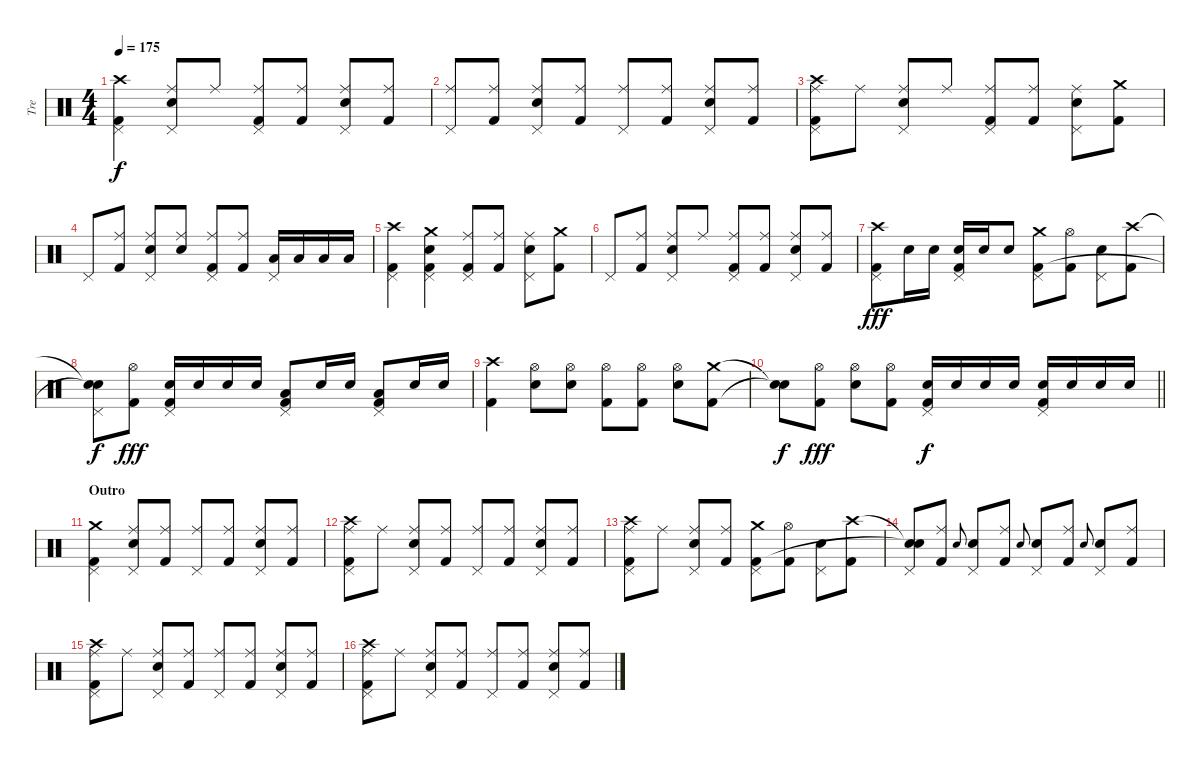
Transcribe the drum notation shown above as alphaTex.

\track ("Tre" "Tre") {instrument percussion}
\staff {score}
\articulation defaults
\ts (4 4)
\tempo 175
\clef neutral
\ks c
("Crash high (hit)" "Pedal Hi-Hat (hit)" "Kick (hit) 2").4{dy f} ("Ride (middle)" "Snare (hit) 2" "Pedal Hi-Hat (hit)").8 "Ride (middle)".8 ("Ride (middle)" "Pedal Hi-Hat (hit)" "Kick (hit) 2").8 ("Ride (middle)" "Kick (hit) 2").8 ("Ride (middle)" "Snare (hit) 2" "Pedal Hi-Hat (hit)").8 ("Ride (middle)" "Kick (hit) 2").8 |
("Ride (middle)" "Pedal Hi-Hat (hit)").8 ("Ride (middle)" "Kick (hit) 2").8 ("Ride (middle)" "Snare (hit) 2" "Pedal Hi-Hat (hit)").8 ("Ride (middle)" "Kick (hit) 2").8 ("Ride (middle)" "Pedal Hi-Hat (hit)").8 ("Ride (middle)" "Kick (hit) 2").8 ("Ride (middle)" "Snare (hit) 2" "Pedal Hi-Hat (hit)").8 ("Ride (middle)" "Kick (hit) 2").8 |
("Crash high (hit)" "Ride (middle)" "Pedal Hi-Hat (hit)" "Kick (hit) 2").8 "Ride (middle)".8 ("Ride (middle)" "Snare (hit) 2" "Pedal Hi-Hat (hit)").8 "Ride (middle)".8 ("Ride (middle)" "Pedal Hi-Hat (hit)" "Kick (hit) 2").8 ("Ride (middle)" "Kick (hit) 2").8 ("Ride (middle)" "Snare (hit) 2" "Pedal Hi-Hat (hit)").8 ("Crash medium (hit)" "Kick (hit) 2").8 |
"Pedal Hi-Hat (hit)".8 ("Ride (middle)" "Kick (hit) 2").8 ("Ride (middle)" "Snare (hit) 2" "Pedal Hi-Hat (hit)").8 ("Ride (middle)" "Snare (hit) 2").8 ("Ride (middle)" "Pedal Hi-Hat (hit)" "Kick (hit) 2").8 ("Ride (middle)" "Kick (hit) 2").8 ("Low Tom (hit)" "Pedal Hi-Hat (hit)").16 "Low Tom (hit)".16 "Low Tom (hit)".16 "Low Tom (hit)".16 |
("Crash high (hit)" "Pedal Hi-Hat (hit)" "Kick (hit) 2").4 ("Crash medium (hit)" "Snare (hit) 2" "Pedal Hi-Hat (hit)" "Kick (hit) 2").4 ("Ride (middle)" "Pedal Hi-Hat (hit)" "Kick (hit) 2").8 ("Ride (middle)" "Kick (hit) 2").8 ("Ride (middle)" "Snare (hit) 2" "Pedal Hi-Hat (hit)").8 ("Crash medium (hit)" "Kick (hit) 2").8 |
"Pedal Hi-Hat (hit)".8 ("Ride (middle)" "Kick (hit) 2").8 ("Ride (middle)" "Snare (hit) 2" "Pedal Hi-Hat (hit)").8 "Ride (middle)".8 ("Ride (middle)" "Pedal Hi-Hat (hit)" "Kick (hit) 2").8 ("Ride (middle)" "Kick (hit) 2").8 ("Ride (middle)" "Snare (hit) 2" "Pedal Hi-Hat (hit)").8 ("Ride (middle)" "Kick (hit) 2").8 |
("Crash high (hit)" "Pedal Hi-Hat (hit)" "Kick (hit) 2").8{dy fff} "Snare (hit) 2".16 "Snare (hit) 2".16 ("Snare (hit) 2" "Pedal Hi-Hat (hit)" "Kick (hit) 2").16 "Snare (hit) 2".16 "Snare (hit) 2".8 ("Crash medium (hit)" "Pedal Hi-Hat (hit)" "Kick (hit) 2").8 ("Hi-Hat (open)" "Kick (hit) 2").8 ("Snare (hit) 2" "Pedal Hi-Hat (hit)").8 ("Crash high (hit)" "Kick (hit) 2").8 |
("Snare (hit)"{t} "Pedal Hi-Hat (hit)" "Snare (hit)"{t}).8{dy f} ("Hi-Hat (open)" "Kick (hit) 2").8{dy fff} ("Snare (hit) 2" "Pedal Hi-Hat (hit)" "Kick (hit) 2").16 "Snare (hit) 2".16 "Snare (hit) 2".16 "Snare (hit) 2".16 ("Low Tom (hit)" "Pedal Hi-Hat (hit)" "Kick (hit) 2").8 "Snare (hit) 2".16 "Snare (hit) 2".16 ("Low Floor Tom (hit)" "Pedal Hi-Hat (hit)" "Kick (hit) 2").8 "Snare (hit) 2".16 "Snare (hit) 2".16 |
("Crash high (hit)" "Kick (hit) 2").4 ("Hi-Hat (open)" "Snare (hit) 2").8 ("Hi-Hat (open)" "Snare (hit) 2").8 ("Hi-Hat (open)" "Kick (hit) 2").8 ("Hi-Hat (open)" "Kick (hit) 2").8 ("Hi-Hat (open)" "Snare (hit) 2").8 ("Crash medium (hit)" "Kick (hit) 2").8 |
\barLineRight lightlight
("Snare (hit)"{t} "Snare (hit)"{t}).8{dy f} ("Hi-Hat (open)" "Kick (hit) 2").8{dy fff} ("Hi-Hat (open)" "Snare (hit) 2").8 ("Hi-Hat (open)" "Kick (hit) 2").8 ("Snare (hit) 2" "Pedal Hi-Hat (hit)" "Kick (hit) 2").16{dy f} "Snare (hit) 2".16 "Snare (hit) 2".16 "Snare (hit) 2".16 ("Snare (hit) 2" "Pedal Hi-Hat (hit)" "Kick (hit) 2").16 "Snare (hit) 2".16 "Snare (hit) 2".16 "Snare (hit) 2".16 |
\section ("" "Outro")
("Crash medium (hit)" "Pedal Hi-Hat (hit)" "Kick (hit) 2").4 ("Ride (middle)" "Snare (hit) 2" "Pedal Hi-Hat (hit)").8 ("Ride (middle)" "Kick (hit) 2").8 ("Ride (middle)" "Pedal Hi-Hat (hit)").8 ("Ride (middle)" "Kick (hit) 2").8 ("Ride (middle)" "Snare (hit) 2" "Pedal Hi-Hat (hit)").8 ("Ride (middle)" "Kick (hit) 2").8 |
("Crash high (hit)" "Ride (middle)" "Pedal Hi-Hat (hit)" "Kick (hit) 2").8 "Ride (middle)".8 ("Ride (middle)" "Snare (hit) 2" "Pedal Hi-Hat (hit)").8 ("Ride (middle)" "Kick (hit) 2").8 ("Ride (middle)" "Pedal Hi-Hat (hit)").8 ("Ride (middle)" "Kick (hit) 2").8 ("Ride (middle)" "Snare (hit) 2" "Pedal Hi-Hat (hit)").8 ("Ride (middle)" "Kick (hit) 2").8 |
("Crash high (hit)" "Ride (middle)" "Pedal Hi-Hat (hit)" "Kick (hit) 2").8 "Ride (middle)".8 ("Ride (middle)" "Snare (hit) 2" "Pedal Hi-Hat (hit)").8 ("Ride (middle)" "Kick (hit) 2").8 ("Crash medium (hit)" "Pedal Hi-Hat (hit)" "Kick (hit) 2").8 ("Hi-Hat (open)" "Kick (hit) 2").8 ("Snare (hit) 2" "Pedal Hi-Hat (hit)").8 ("Crash high (hit)" "Kick (hit) 2").8 |
("Snare (hit)"{t} "Pedal Hi-Hat (hit)" "Snare (hit)"{t}).8 ("Ride (middle)" "Kick (hit) 2").8 "Snare (hit) 2".8{gr onbeat} ("Snare (hit) 2" "Pedal Hi-Hat (hit)").8 ("Ride (middle)" "Kick (hit) 2").8 "Snare (hit) 2".8{gr onbeat} ("Snare (hit) 2" "Pedal Hi-Hat (hit)").8 ("Ride (middle)" "Kick (hit) 2").8 "Snare (hit) 2".8{gr onbeat} ("Snare (hit) 2" "Pedal Hi-Hat (hit)").8 ("Ride (middle)" "Kick (hit) 2").8 |
("Crash high (hit)" "Ride (middle)" "Pedal Hi-Hat (hit)" "Kick (hit) 2").8 "Ride (middle)".8 ("Ride (middle)" "Snare (hit) 2" "Pedal Hi-Hat (hit)").8 ("Ride (middle)" "Kick (hit) 2").8 ("Ride (middle)" "Pedal Hi-Hat (hit)").8 ("Ride (middle)" "Kick (hit) 2").8 ("Ride (middle)" "Snare (hit) 2" "Pedal Hi-Hat (hit)").8 ("Ride (middle)" "Kick (hit) 2").8 |
("Crash high (hit)" "Ride (middle)" "Pedal Hi-Hat (hit)" "Kick (hit) 2").8 "Ride (middle)".8 ("Ride (middle)" "Snare (hit) 2" "Pedal Hi-Hat (hit)").8 ("Ride (middle)" "Kick (hit) 2").8 ("Ride (middle)" "Pedal Hi-Hat (hit)").8 ("Ride (middle)" "Kick (hit) 2").8 ("Ride (middle)" "Snare (hit) 2" "Pedal Hi-Hat (hit)").8 ("Ride (middle)" "Kick (hit) 2").8
